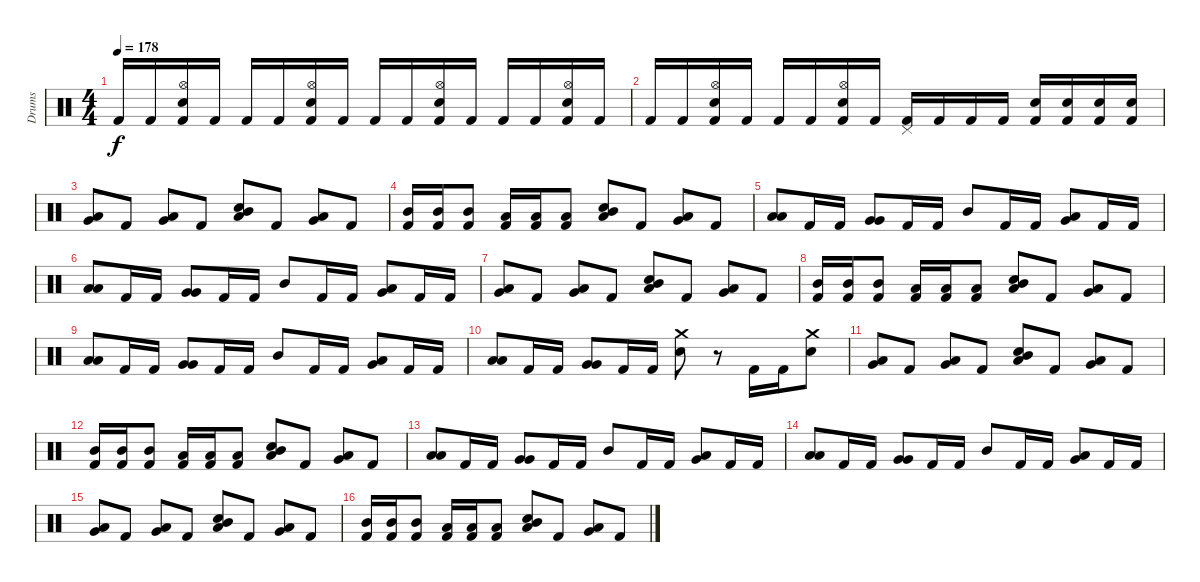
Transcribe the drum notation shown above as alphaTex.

\track ("Drums" "Drums") {instrument percussion}
\staff {score}
\articulation defaults
\ts (4 4)
\tempo 178
\clef neutral
\ks c "Kick (hit) 2".16{dy f} "Kick (hit) 2".16
("Hi-Hat (open)" "Electric Snare (hit)" "Kick (hit) 2").16 "Kick (hit) 2".16 "Kick (hit) 2".16 "Kick (hit) 2".16 ("Hi-Hat (open)" "Electric Snare (hit)" "Kick (hit) 2").16 "Kick (hit) 2".16 "Kick (hit) 2".16 "Kick (hit) 2".16 ("Hi-Hat (open)" "Electric Snare (hit)" "Kick (hit) 2").16 "Kick (hit) 2".16 "Kick (hit) 2".16 "Kick (hit) 2".16 ("Hi-Hat (open)" "Electric Snare (hit)" "Kick (hit) 2").16 "Kick (hit) 2".16 |
"Kick (hit) 2".16 "Kick (hit) 2".16 ("Hi-Hat (open)" "Electric Snare (hit)" "Kick (hit) 2").16 "Kick (hit) 2".16 "Kick (hit) 2".16 "Kick (hit) 2".16 ("Hi-Hat (open)" "Electric Snare (hit)" "Kick (hit) 2").16 "Kick (hit) 2".16 ("Pedal Hi-Hat (hit)" "Kick (hit) 2").16 "Kick (hit) 2".16 "Kick (hit) 2".16 "Kick (hit) 2".16 ("Electric Snare (hit)" "Kick (hit) 2").16 ("Electric Snare (hit)" "Kick (hit) 2").16 ("Electric Snare (hit)" "Kick (hit) 2").16 ("Electric Snare (hit)" "Kick (hit) 2").16 |
("Very Low Tom (hit)" "Low Tom (hit)").8 "Kick (hit) 2".8 ("Very Low Tom (hit)" "Low Tom (hit)").8 "Kick (hit) 2".8 ("Electric Snare (hit)" "Mid Tom (hit)" "Low Tom (hit)").8 "Kick (hit) 2".8 ("Very Low Tom (hit)" "Low Tom (hit)").8 "Kick (hit) 2".8 |
("Mid Tom (hit)" "Kick (hit) 2").16 ("Mid Tom (hit)" "Kick (hit) 2").16 ("Mid Tom (hit)" "Kick (hit) 2").8 ("Low Tom (hit)" "Kick (hit) 2").16 ("Low Tom (hit)" "Kick (hit) 2").16 ("Low Tom (hit)" "Kick (hit) 2").8 ("Low Tom (hit)" "Mid Tom (hit)" "Electric Snare (hit)").8 "Kick (hit) 2".8 ("Very Low Tom (hit)" "Low Tom (hit)").8 "Kick (hit) 2".8 |
("Low Tom (hit)" "Low Tom (hit)").8 "Kick (hit) 2".16 "Kick (hit) 2".16 ("Very Low Tom (hit)" "Very Low Tom (hit)").8 "Kick (hit) 2".16 "Kick (hit) 2".16 "Mid Tom (hit)".8 "Kick (hit) 2".16 "Kick (hit) 2".16 ("Very Low Tom (hit)" "Low Tom (hit)").8 "Kick (hit) 2".16 "Kick (hit) 2".16 |
("Low Tom (hit)" "Low Tom (hit)").8 "Kick (hit) 2".16 "Kick (hit) 2".16 ("Very Low Tom (hit)" "Very Low Tom (hit)").8 "Kick (hit) 2".16 "Kick (hit) 2".16 "Mid Tom (hit)".8 "Kick (hit) 2".16 "Kick (hit) 2".16 ("Very Low Tom (hit)" "Low Tom (hit)").8 "Kick (hit) 2".16 "Kick (hit) 2".16 |
("Very Low Tom (hit)" "Low Tom (hit)").8 "Kick (hit) 2".8 ("Very Low Tom (hit)" "Low Tom (hit)").8 "Kick (hit) 2".8 ("Electric Snare (hit)" "Mid Tom (hit)" "Low Tom (hit)").8 "Kick (hit) 2".8 ("Very Low Tom (hit)" "Low Tom (hit)").8 "Kick (hit) 2".8 |
("Mid Tom (hit)" "Kick (hit) 2").16 ("Mid Tom (hit)" "Kick (hit) 2").16 ("Mid Tom (hit)" "Kick (hit) 2").8 ("Low Tom (hit)" "Kick (hit) 2").16 ("Low Tom (hit)" "Kick (hit) 2").16 ("Low Tom (hit)" "Kick (hit) 2").8 ("Low Tom (hit)" "Mid Tom (hit)" "Electric Snare (hit)").8 "Kick (hit) 2".8 ("Very Low Tom (hit)" "Low Tom (hit)").8 "Kick (hit) 2".8 |
("Low Tom (hit)" "Low Tom (hit)").8 "Kick (hit) 2".16 "Kick (hit) 2".16 ("Very Low Tom (hit)" "Very Low Tom (hit)").8 "Kick (hit) 2".16 "Kick (hit) 2".16 "Mid Tom (hit)".8 "Kick (hit) 2".16 "Kick (hit) 2".16 ("Very Low Tom (hit)" "Low Tom (hit)").8 "Kick (hit) 2".16 "Kick (hit) 2".16 |
("Low Tom (hit)" "Low Tom (hit)").8 "Kick (hit) 2".16 "Kick (hit) 2".16 ("Very Low Tom (hit)" "Very Low Tom (hit)").8 "Kick (hit) 2".16 "Kick (hit) 2".16 ("Crash medium (hit)" "Electric Snare (hit)").8 r.8 "Kick (hit) 2".16 "Kick (hit) 2".16 ("Crash medium (hit)" "Electric Snare (hit)").8 |
("Very Low Tom (hit)" "Low Tom (hit)").8 "Kick (hit) 2".8 ("Very Low Tom (hit)" "Low Tom (hit)").8 "Kick (hit) 2".8 ("Electric Snare (hit)" "Mid Tom (hit)" "Low Tom (hit)").8 "Kick (hit) 2".8 ("Very Low Tom (hit)" "Low Tom (hit)").8 "Kick (hit) 2".8 |
("Mid Tom (hit)" "Kick (hit) 2").16 ("Mid Tom (hit)" "Kick (hit) 2").16 ("Mid Tom (hit)" "Kick (hit) 2").8 ("Low Tom (hit)" "Kick (hit) 2").16 ("Low Tom (hit)" "Kick (hit) 2").16 ("Low Tom (hit)" "Kick (hit) 2").8 ("Low Tom (hit)" "Mid Tom (hit)" "Electric Snare (hit)").8 "Kick (hit) 2".8 ("Very Low Tom (hit)" "Low Tom (hit)").8 "Kick (hit) 2".8 |
("Low Tom (hit)" "Low Tom (hit)").8 "Kick (hit) 2".16 "Kick (hit) 2".16 ("Very Low Tom (hit)" "Very Low Tom (hit)").8 "Kick (hit) 2".16 "Kick (hit) 2".16 "Mid Tom (hit)".8 "Kick (hit) 2".16 "Kick (hit) 2".16 ("Very Low Tom (hit)" "Low Tom (hit)").8 "Kick (hit) 2".16 "Kick (hit) 2".16 |
("Low Tom (hit)" "Low Tom (hit)").8 "Kick (hit) 2".16 "Kick (hit) 2".16 ("Very Low Tom (hit)" "Very Low Tom (hit)").8 "Kick (hit) 2".16 "Kick (hit) 2".16 "Mid Tom (hit)".8 "Kick (hit) 2".16 "Kick (hit) 2".16 ("Very Low Tom (hit)" "Low Tom (hit)").8 "Kick (hit) 2".16 "Kick (hit) 2".16 |
("Very Low Tom (hit)" "Low Tom (hit)").8 "Kick (hit) 2".8 ("Very Low Tom (hit)" "Low Tom (hit)").8 "Kick (hit) 2".8 ("Electric Snare (hit)" "Mid Tom (hit)" "Low Tom (hit)").8 "Kick (hit) 2".8 ("Very Low Tom (hit)" "Low Tom (hit)").8 "Kick (hit) 2".8 |
("Mid Tom (hit)" "Kick (hit) 2").16 ("Mid Tom (hit)" "Kick (hit) 2").16 ("Mid Tom (hit)" "Kick (hit) 2").8 ("Low Tom (hit)" "Kick (hit) 2").16 ("Low Tom (hit)" "Kick (hit) 2").16 ("Low Tom (hit)" "Kick (hit) 2").8 ("Low Tom (hit)" "Mid Tom (hit)" "Electric Snare (hit)").8 "Kick (hit) 2".8 ("Very Low Tom (hit)" "Low Tom (hit)").8 "Kick (hit) 2".8
